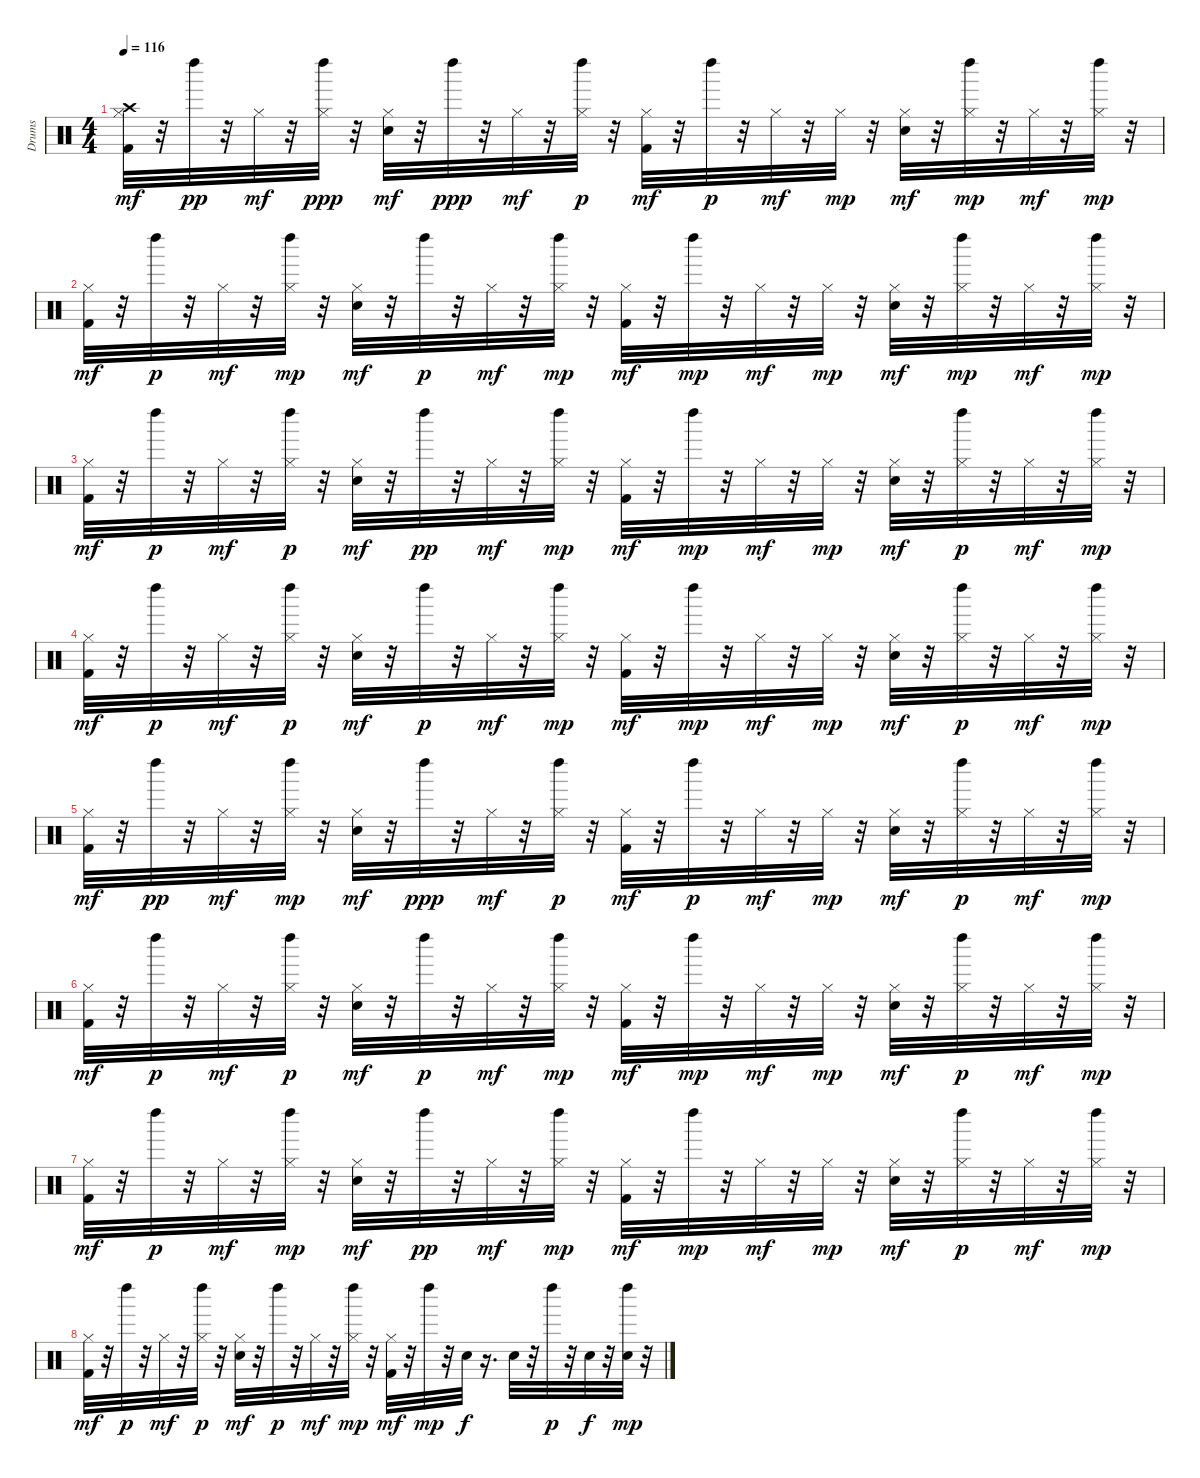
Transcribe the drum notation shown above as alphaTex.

\track ("Drums" "Drums") {instrument percussion}
\staff {score}
\articulation defaults
\ts (4 4)
\tempo 116
\clef neutral
\ks c
("Kick (hit) 2" "Hi-Hat (closed)" "Crash high (hit)").32{dy mf} r.32 "Left Maraca (hit)".32{dy pp} r.32 "Hi-Hat (closed)".32{dy mf} r.32 ("Hi-Hat (closed)" "Left Maraca (hit)").32{dy ppp} r.32 ("Snare (hit) 2" "Hi-Hat (closed)").32{dy mf} r.32 "Left Maraca (hit)".32{dy ppp} r.32 "Hi-Hat (closed)".32{dy mf} r.32 ("Hi-Hat (closed)" "Left Maraca (hit)").32{dy p} r.32 ("Kick (hit) 2" "Hi-Hat (closed)").32{dy mf} r.32 "Left Maraca (hit)".32{dy p} r.32 "Hi-Hat (closed)".32{dy mf} r.32 "Hi-Hat (closed)".32{dy mp} r.32 ("Hi-Hat (closed)" "Snare (hit) 2").32{dy mf} r.32 ("Left Maraca (hit)" "Hi-Hat (closed)").32{dy mp} r.32 "Hi-Hat (closed)".32{dy mf} r.32 ("Left Maraca (hit)" "Hi-Hat (closed)").32{dy mp} r.32 |
("Hi-Hat (closed)" "Kick (hit) 2").32{dy mf} r.32 "Left Maraca (hit)".32{dy p} r.32 "Hi-Hat (closed)".32{dy mf} r.32 ("Left Maraca (hit)" "Hi-Hat (closed)").32{dy mp} r.32 ("Snare (hit) 2" "Hi-Hat (closed)").32{dy mf} r.32 "Left Maraca (hit)".32{dy p} r.32 "Hi-Hat (closed)".32{dy mf} r.32 ("Left Maraca (hit)" "Hi-Hat (closed)").32{dy mp} r.32 ("Hi-Hat (closed)" "Kick (hit) 2").32{dy mf} r.32 "Left Maraca (hit)".32{dy mp} r.32 "Hi-Hat (closed)".32{dy mf} r.32 "Hi-Hat (closed)".32{dy mp} r.32 ("Snare (hit) 2" "Hi-Hat (closed)").32{dy mf} r.32 ("Left Maraca (hit)" "Hi-Hat (closed)").32{dy mp} r.32 "Hi-Hat (closed)".32{dy mf} r.32 ("Hi-Hat (closed)" "Left Maraca (hit)").32{dy mp} r.32 |
("Kick (hit) 2" "Hi-Hat (closed)").32{dy mf} r.32 "Left Maraca (hit)".32{dy p} r.32 "Hi-Hat (closed)".32{dy mf} r.32 ("Hi-Hat (closed)" "Left Maraca (hit)").32{dy p} r.32 ("Snare (hit) 2" "Hi-Hat (closed)").32{dy mf} r.32 "Left Maraca (hit)".32{dy pp} r.32 "Hi-Hat (closed)".32{dy mf} r.32 ("Hi-Hat (closed)" "Left Maraca (hit)").32{dy mp} r.32 ("Hi-Hat (closed)" "Kick (hit) 2").32{dy mf} r.32 "Left Maraca (hit)".32{dy mp} r.32 "Hi-Hat (closed)".32{dy mf} r.32 "Hi-Hat (closed)".32{dy mp} r.32 ("Hi-Hat (closed)" "Snare (hit) 2").32{dy mf} r.32 ("Hi-Hat (closed)" "Left Maraca (hit)").32{dy p} r.32 "Hi-Hat (closed)".32{dy mf} r.32 ("Hi-Hat (closed)" "Left Maraca (hit)").32{dy mp} r.32 |
("Kick (hit) 2" "Hi-Hat (closed)").32{dy mf} r.32 "Left Maraca (hit)".32{dy p} r.32 "Hi-Hat (closed)".32{dy mf} r.32 ("Hi-Hat (closed)" "Left Maraca (hit)").32{dy p} r.32 ("Hi-Hat (closed)" "Snare (hit) 2").32{dy mf} r.32 "Left Maraca (hit)".32{dy p} r.32 "Hi-Hat (closed)".32{dy mf} r.32 ("Hi-Hat (closed)" "Left Maraca (hit)").32{dy mp} r.32 ("Hi-Hat (closed)" "Kick (hit) 2").32{dy mf} r.32 "Left Maraca (hit)".32{dy mp} r.32 "Hi-Hat (closed)".32{dy mf} r.32 "Hi-Hat (closed)".32{dy mp} r.32 ("Hi-Hat (closed)" "Snare (hit) 2").32{dy mf} r.32 ("Hi-Hat (closed)" "Left Maraca (hit)").32{dy p} r.32 "Hi-Hat (closed)".32{dy mf} r.32 ("Hi-Hat (closed)" "Left Maraca (hit)").32{dy mp} r.32 |
("Hi-Hat (closed)" "Kick (hit) 2").32{dy mf} r.32 "Left Maraca (hit)".32{dy pp} r.32 "Hi-Hat (closed)".32{dy mf} r.32 ("Left Maraca (hit)" "Hi-Hat (closed)").32{dy mp} r.32 ("Snare (hit) 2" "Hi-Hat (closed)").32{dy mf} r.32 "Left Maraca (hit)".32{dy ppp} r.32 "Hi-Hat (closed)".32{dy mf} r.32 ("Hi-Hat (closed)" "Left Maraca (hit)").32{dy p} r.32 ("Kick (hit) 2" "Hi-Hat (closed)").32{dy mf} r.32 "Left Maraca (hit)".32{dy p} r.32 "Hi-Hat (closed)".32{dy mf} r.32 "Hi-Hat (closed)".32{dy mp} r.32 ("Snare (hit) 2" "Hi-Hat (closed)").32{dy mf} r.32 ("Hi-Hat (closed)" "Left Maraca (hit)").32{dy p} r.32 "Hi-Hat (closed)".32{dy mf} r.32 ("Left Maraca (hit)" "Hi-Hat (closed)").32{dy mp} r.32 |
("Kick (hit) 2" "Hi-Hat (closed)").32{dy mf} r.32 "Left Maraca (hit)".32{dy p} r.32 "Hi-Hat (closed)".32{dy mf} r.32 ("Hi-Hat (closed)" "Left Maraca (hit)").32{dy p} r.32 ("Hi-Hat (closed)" "Snare (hit) 2").32{dy mf} r.32 "Left Maraca (hit)".32{dy p} r.32 "Hi-Hat (closed)".32{dy mf} r.32 ("Left Maraca (hit)" "Hi-Hat (closed)").32{dy mp} r.32 ("Hi-Hat (closed)" "Kick (hit) 2").32{dy mf} r.32 "Left Maraca (hit)".32{dy mp} r.32 "Hi-Hat (closed)".32{dy mf} r.32 "Hi-Hat (closed)".32{dy mp} r.32 ("Snare (hit) 2" "Hi-Hat (closed)").32{dy mf} r.32 ("Hi-Hat (closed)" "Left Maraca (hit)").32{dy p} r.32 "Hi-Hat (closed)".32{dy mf} r.32 ("Left Maraca (hit)" "Hi-Hat (closed)").32{dy mp} r.32 |
("Hi-Hat (closed)" "Kick (hit) 2").32{dy mf} r.32 "Left Maraca (hit)".32{dy p} r.32 "Hi-Hat (closed)".32{dy mf} r.32 ("Left Maraca (hit)" "Hi-Hat (closed)").32{dy mp} r.32 ("Hi-Hat (closed)" "Snare (hit) 2").32{dy mf} r.32 "Left Maraca (hit)".32{dy pp} r.32 "Hi-Hat (closed)".32{dy mf} r.32 ("Hi-Hat (closed)" "Left Maraca (hit)").32{dy mp} r.32 ("Kick (hit) 2" "Hi-Hat (closed)").32{dy mf} r.32 "Left Maraca (hit)".32{dy mp} r.32 "Hi-Hat (closed)".32{dy mf} r.32 "Hi-Hat (closed)".32{dy mp} r.32 ("Snare (hit) 2" "Hi-Hat (closed)").32{dy mf} r.32 ("Hi-Hat (closed)" "Left Maraca (hit)").32{dy p} r.32 "Hi-Hat (closed)".32{dy mf} r.32 ("Left Maraca (hit)" "Hi-Hat (closed)").32{dy mp} r.32 |
("Hi-Hat (closed)" "Kick (hit) 2").32{dy mf} r.32 "Left Maraca (hit)".32{dy p} r.32 "Hi-Hat (closed)".32{dy mf} r.32 ("Hi-Hat (closed)" "Left Maraca (hit)").32{dy p} r.32 ("Snare (hit) 2" "Hi-Hat (closed)").32{dy mf} r.32 "Left Maraca (hit)".32{dy p} r.32 "Hi-Hat (closed)".32{dy mf} r.32 ("Left Maraca (hit)" "Hi-Hat (closed)").32{dy mp} r.32 ("Kick (hit) 2" "Hi-Hat (closed)").32{dy mf} r.32 "Left Maraca (hit)".32{dy mp} r.32 "Snare (hit) 2".32{dy f} r.16{d} "Snare (hit) 2".32 r.32 "Left Maraca (hit)".32{dy p} r.32 "Snare (hit) 2".32{dy f} r.32 ("Left Maraca (hit)" "Snare (hit) 2").32{dy mp} r.32
